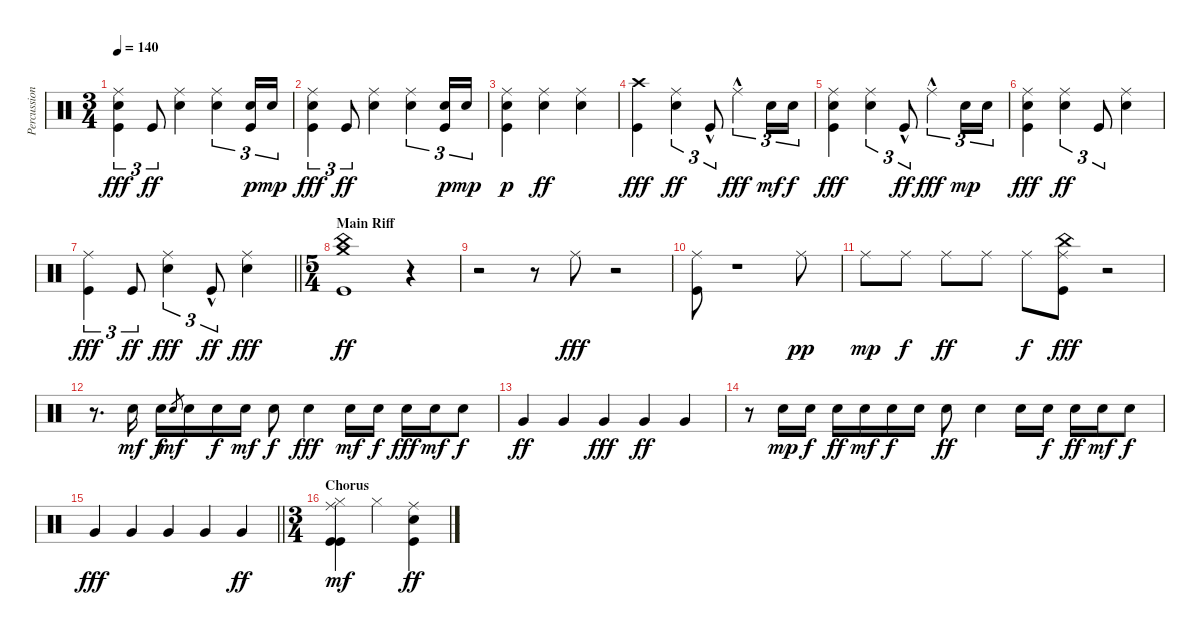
\track ("Percussion" "Percussion") {instrument percussion}
\staff {score}
\articulation defaults
\ts (3 4)
\tempo 140
\clef neutral
\ks c
("Ride (middle)" "Electric Snare (hit)" "Kick (hit)").4{tu (3 2) dy fff} "Kick (hit)".8{tu (3 2) dy ff} ("Ride (middle)" "Electric Snare (hit)").4 ("Electric Snare (hit)" "Ride (middle)").4{tu (3 2)} ("Electric Snare (hit)" "Kick (hit)").16{tu (3 2) dy p} "Electric Snare (hit)".16{tu (3 2) dy mp} |
("Ride (middle)" "Electric Snare (hit)" "Kick (hit)").4{tu (3 2) dy fff} "Kick (hit)".8{tu (3 2) dy ff} ("Ride (middle)" "Electric Snare (hit)").4 ("Electric Snare (hit)" "Ride (middle)").4{tu (3 2)} ("Electric Snare (hit)" "Kick (hit)").16{tu (3 2) dy p} "Electric Snare (hit)".16{tu (3 2) dy mp} |
("Kick (hit)" "Ride (middle)" "Electric Snare (hit)").4{dy p} ("Ride (middle)" "Electric Snare (hit)").4{dy ff} ("Electric Snare (hit)" "Ride (middle)").4 |
("Crash high (hit)" "Kick (hit)").4{dy fff} ("Electric Snare (hit)" "Ride (middle)").4{tu (3 2) dy ff} "Kick (hit)"{hac}.8{tu (3 2)} "Ride (middle)"{hac}.4{tu (3 2) dy fff} "Electric Snare (hit)".16{tu (3 2) dy mf} "Electric Snare (hit)".16{tu (3 2) dy f} |
("Electric Snare (hit)" "Ride (middle)" "Kick (hit)").4{dy fff} ("Electric Snare (hit)" "Ride (middle)").4{tu (3 2)} "Kick (hit)"{hac}.8{tu (3 2) dy ff} "Ride (middle)"{hac}.4{tu (3 2) dy fff} "Electric Snare (hit)".16{tu (3 2) dy mp} "Electric Snare (hit)".16{tu (3 2)} |
("Kick (hit)" "Electric Snare (hit)" "Ride (middle)").4{dy fff} ("Ride (middle)" "Electric Snare (hit)").4{tu (3 2) dy ff} "Kick (hit)".8{tu (3 2)} ("Ride (middle)" "Electric Snare (hit)").4 |
\barLineRight lightlight
("Kick (hit)" "Ride (middle)").4{tu (3 2) dy fff} "Kick (hit)".8{tu (3 2) dy ff} ("Ride (middle)" "Electric Snare (hit)").4{tu (3 2) dy fff} "Kick (hit)"{hac}.8{tu (3 2) dy ff} ("Electric Snare (hit)" "Ride (middle)").4{dy fff} |
\ts (5 4)
\section ("" "Main Riff")
("China (hit)" "Kick (hit)" "Crash medium (hit)").1{dy ff} r.4 |
r.2 r.8 "Ride (middle)".8{dy fff} r.2 |
("Ride (middle)" "Kick (hit)").8 r.1 "Ride (middle)".8{dy pp} |
"Ride (middle)".8{dy mp} "Ride (middle)".8{dy f} "Ride (middle)".8{dy ff} "Ride (middle)".8 "Ride (middle)".8{dy f} ("Ride (middle)" "China (hit)" "Kick (hit)").8{dy fff} r.2 |
r.8{d} "Electric Snare (hit)".16{dy mf} "Electric Snare (hit)".16{dy f} "Electric Snare (hit)".8{gr dy mf} "Electric Snare (hit)".16 "Electric Snare (hit)".16{dy f} "Electric Snare (hit)".16{dy mf} "Electric Snare (hit)".8{dy f} "Electric Snare (hit)".4{dy fff} "Electric Snare (hit)".16{dy mf} "Electric Snare (hit)".16{dy f} "Electric Snare (hit)".16{dy fff} "Electric Snare (hit)".16{dy mf} "Electric Snare (hit)".8{dy f} |
"Very Low Tom (hit)".4{dy ff} "Very Low Tom (hit)".4 "Very Low Tom (hit)".4{dy fff} "Very Low Tom (hit)".4{dy ff} "Very Low Tom (hit)".4 |
r.8 "Electric Snare (hit)".16{dy mp} "Electric Snare (hit)".16{dy f} "Electric Snare (hit)".16{dy ff} "Electric Snare (hit)".16{dy mf} "Electric Snare (hit)".16{dy f} "Electric Snare (hit)".16 "Electric Snare (hit)".8{dy ff} "Electric Snare (hit)".4 "Electric Snare (hit)".16 "Electric Snare (hit)".16{dy f} "Electric Snare (hit)".16{dy ff} "Electric Snare (hit)".16{dy mf} "Electric Snare (hit)".8{dy f} |
\barLineRight lightlight "Very Low Tom (hit)".4{dy fff} "Very Low Tom (hit)".4 "Very Low Tom (hit)".4 "Very Low Tom (hit)".4 "Very Low Tom (hit)".4{dy ff}
|
\ts (3 4)
\section ("" "Chorus")
("Ride (middle)" "Kick (hit)" "Kick (hit)" "Hi-Hat (closed)").4{dy mf} "Hi-Hat (closed)".4 ("Electric Snare (hit)" "Kick (hit)" "Ride (middle)").4{dy ff}
